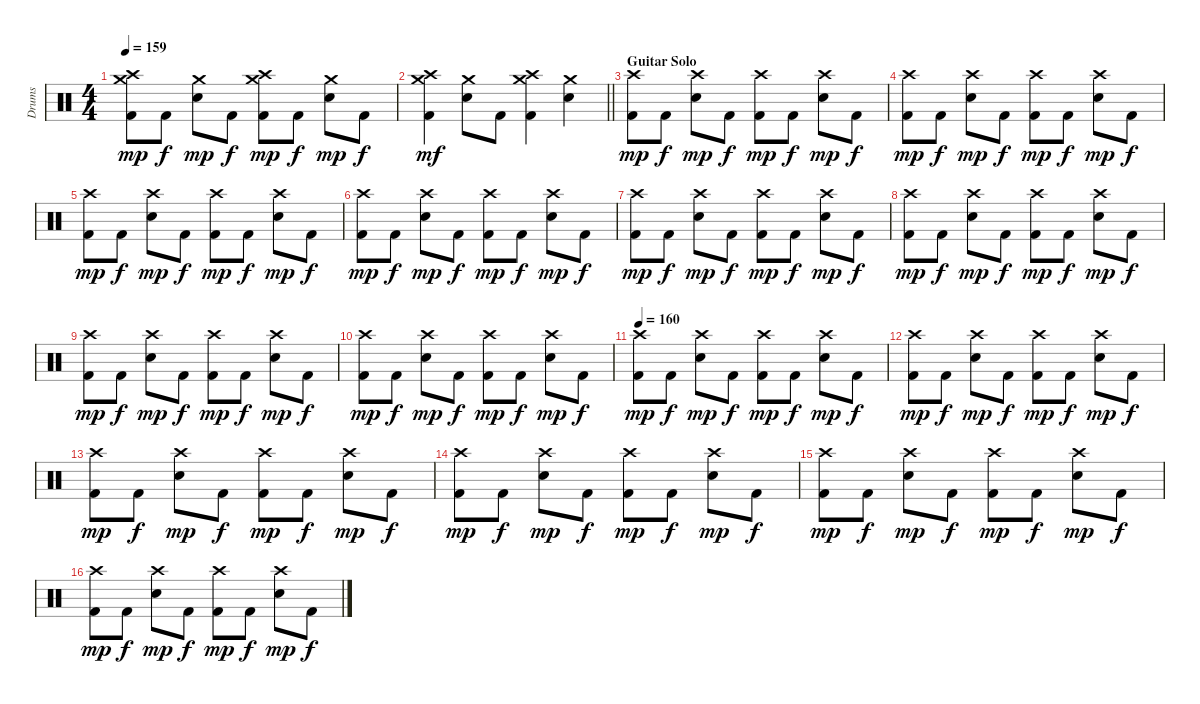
\track ("Drums" "Drums") {instrument percussion}
\staff {score}
\articulation defaults
\ts (4 4)
\tempo 159
\clef neutral
\ks c
("Crash high (hit)" "Crash medium (hit)" "Kick (hit) 2").8{dy mp} "Kick (hit) 2".8{dy f} ("Crash medium (hit)" "Electric Snare (hit)").8{dy mp} "Kick (hit) 2".8{dy f} ("Crash high (hit)" "Crash medium (hit)" "Kick (hit) 2").8{dy mp} "Kick (hit) 2".8{dy f} ("Crash medium (hit)" "Electric Snare (hit)").8{dy mp} "Kick (hit) 2".8{dy f} |
\barLineRight lightlight
("Crash high (hit)" "Crash medium (hit)" "Kick (hit) 2").4{dy mf} ("Crash medium (hit)" "Electric Snare (hit)").8 "Kick (hit) 2".8 ("Crash high (hit)" "Crash medium (hit)" "Kick (hit) 2").4 ("Crash medium (hit)" "Electric Snare (hit)").4 |
\section ("" "Guitar Solo")
("Crash high (hit)" "Kick (hit) 2").8{dy mp} "Kick (hit) 2".8{dy f} ("Crash high (hit)" "Electric Snare (hit)").8{dy mp} "Kick (hit) 2".8{dy f} ("Crash high (hit)" "Kick (hit) 2").8{dy mp} "Kick (hit) 2".8{dy f} ("Crash high (hit)" "Electric Snare (hit)").8{dy mp} "Kick (hit) 2".8{dy f} |
("Crash high (hit)" "Kick (hit) 2").8{dy mp} "Kick (hit) 2".8{dy f} ("Crash high (hit)" "Electric Snare (hit)").8{dy mp} "Kick (hit) 2".8{dy f} ("Crash high (hit)" "Kick (hit) 2").8{dy mp} "Kick (hit) 2".8{dy f} ("Crash high (hit)" "Electric Snare (hit)").8{dy mp} "Kick (hit) 2".8{dy f} |
("Crash high (hit)" "Kick (hit) 2").8{dy mp} "Kick (hit) 2".8{dy f} ("Crash high (hit)" "Electric Snare (hit)").8{dy mp} "Kick (hit) 2".8{dy f} ("Crash high (hit)" "Kick (hit) 2").8{dy mp} "Kick (hit) 2".8{dy f} ("Crash high (hit)" "Electric Snare (hit)").8{dy mp} "Kick (hit) 2".8{dy f} |
("Crash high (hit)" "Kick (hit) 2").8{dy mp} "Kick (hit) 2".8{dy f} ("Crash high (hit)" "Electric Snare (hit)").8{dy mp} "Kick (hit) 2".8{dy f} ("Crash high (hit)" "Kick (hit) 2").8{dy mp} "Kick (hit) 2".8{dy f} ("Crash high (hit)" "Electric Snare (hit)").8{dy mp} "Kick (hit) 2".8{dy f} |
("Crash high (hit)" "Kick (hit) 2").8{dy mp} "Kick (hit) 2".8{dy f} ("Crash high (hit)" "Electric Snare (hit)").8{dy mp} "Kick (hit) 2".8{dy f} ("Crash high (hit)" "Kick (hit) 2").8{dy mp} "Kick (hit) 2".8{dy f} ("Crash high (hit)" "Electric Snare (hit)").8{dy mp} "Kick (hit) 2".8{dy f} |
("Crash high (hit)" "Kick (hit) 2").8{dy mp} "Kick (hit) 2".8{dy f} ("Crash high (hit)" "Electric Snare (hit)").8{dy mp} "Kick (hit) 2".8{dy f} ("Crash high (hit)" "Kick (hit) 2").8{dy mp} "Kick (hit) 2".8{dy f} ("Crash high (hit)" "Electric Snare (hit)").8{dy mp} "Kick (hit) 2".8{dy f} |
("Crash high (hit)" "Kick (hit) 2").8{dy mp} "Kick (hit) 2".8{dy f} ("Crash high (hit)" "Electric Snare (hit)").8{dy mp} "Kick (hit) 2".8{dy f} ("Crash high (hit)" "Kick (hit) 2").8{dy mp} "Kick (hit) 2".8{dy f} ("Crash high (hit)" "Electric Snare (hit)").8{dy mp} "Kick (hit) 2".8{dy f} |
("Crash high (hit)" "Kick (hit) 2").8{dy mp} "Kick (hit) 2".8{dy f} ("Crash high (hit)" "Electric Snare (hit)").8{dy mp} "Kick (hit) 2".8{dy f} ("Crash high (hit)" "Kick (hit) 2").8{dy mp} "Kick (hit) 2".8{dy f} ("Crash high (hit)" "Electric Snare (hit)").8{dy mp} "Kick (hit) 2".8{dy f} |
\tempo 160
("Crash high (hit)" "Kick (hit) 2").8{dy mp} "Kick (hit) 2".8{dy f} ("Crash high (hit)" "Electric Snare (hit)").8{dy mp} "Kick (hit) 2".8{dy f} ("Crash high (hit)" "Kick (hit) 2").8{dy mp} "Kick (hit) 2".8{dy f} ("Crash high (hit)" "Electric Snare (hit)").8{dy mp} "Kick (hit) 2".8{dy f} |
("Crash high (hit)" "Kick (hit) 2").8{dy mp} "Kick (hit) 2".8{dy f} ("Crash high (hit)" "Electric Snare (hit)").8{dy mp} "Kick (hit) 2".8{dy f} ("Crash high (hit)" "Kick (hit) 2").8{dy mp} "Kick (hit) 2".8{dy f} ("Crash high (hit)" "Electric Snare (hit)").8{dy mp} "Kick (hit) 2".8{dy f} |
("Crash high (hit)" "Kick (hit) 2").8{dy mp} "Kick (hit) 2".8{dy f} ("Crash high (hit)" "Electric Snare (hit)").8{dy mp} "Kick (hit) 2".8{dy f} ("Crash high (hit)" "Kick (hit) 2").8{dy mp} "Kick (hit) 2".8{dy f} ("Crash high (hit)" "Electric Snare (hit)").8{dy mp} "Kick (hit) 2".8{dy f} |
("Crash high (hit)" "Kick (hit) 2").8{dy mp} "Kick (hit) 2".8{dy f} ("Crash high (hit)" "Electric Snare (hit)").8{dy mp} "Kick (hit) 2".8{dy f} ("Crash high (hit)" "Kick (hit) 2").8{dy mp} "Kick (hit) 2".8{dy f} ("Crash high (hit)" "Electric Snare (hit)").8{dy mp} "Kick (hit) 2".8{dy f} |
("Crash high (hit)" "Kick (hit) 2").8{dy mp} "Kick (hit) 2".8{dy f} ("Crash high (hit)" "Electric Snare (hit)").8{dy mp} "Kick (hit) 2".8{dy f} ("Crash high (hit)" "Kick (hit) 2").8{dy mp} "Kick (hit) 2".8{dy f} ("Crash high (hit)" "Electric Snare (hit)").8{dy mp} "Kick (hit) 2".8{dy f} |
("Crash high (hit)" "Kick (hit) 2").8{dy mp} "Kick (hit) 2".8{dy f} ("Crash high (hit)" "Electric Snare (hit)").8{dy mp} "Kick (hit) 2".8{dy f} ("Crash high (hit)" "Kick (hit) 2").8{dy mp} "Kick (hit) 2".8{dy f} ("Crash high (hit)" "Electric Snare (hit)").8{dy mp} "Kick (hit) 2".8{dy f}
